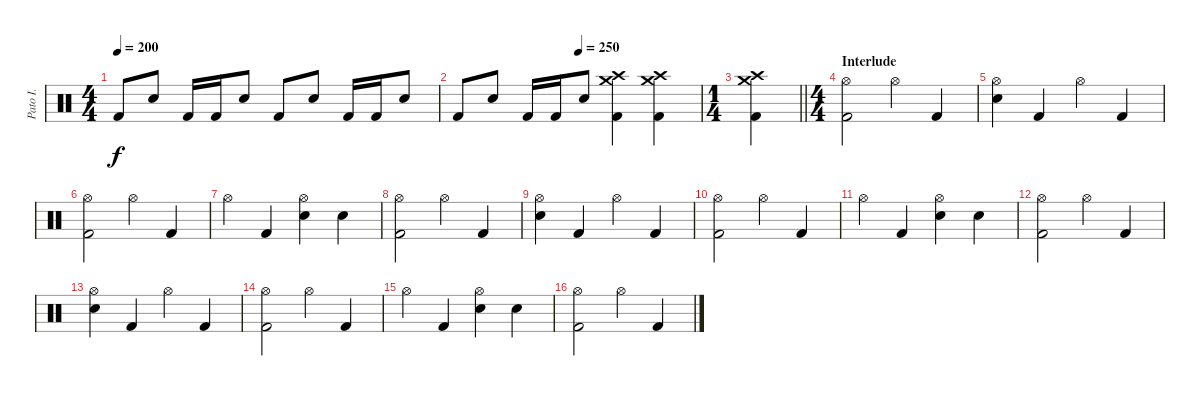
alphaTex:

\track ("Pato I." "Pato I.") {instrument percussion}
\staff {score}
\articulation defaults
\ts (4 4)
\tempo 200
\clef neutral
\ks c "Kick (hit) 2".8{dy f} "Snare (hit) 2".8 "Kick (hit) 2".16 "Kick (hit) 2".16 "Snare (hit) 2".8 "Kick (hit) 2".8 "Snare (hit) 2".8 "Kick (hit) 2".16 "Kick (hit) 2".16 "Snare (hit) 2".8
|
\tempo (250 0.5)
"Kick (hit) 2".8 "Snare (hit) 2".8 "Kick (hit) 2".16 "Kick (hit) 2".16 "Snare (hit) 2".8 ("Crash high (hit)" "Crash medium (hit)" "Kick (hit) 2").4 ("Crash high (hit)" "Crash medium (hit)" "Kick (hit) 2").4 |
\ts (1 4)
\barLineRight lightlight
("Crash high (hit)" "Crash medium (hit)" "Kick (hit) 2").4 |
\ts (4 4)
\section ("" "Interlude")
("Hi-Hat (open)" "Kick (hit) 2").2 "Hi-Hat (open)".4 "Kick (hit) 2".4 |
("Hi-Hat (open)" "Snare (hit) 2").4 "Kick (hit) 2".4 "Hi-Hat (open)".4 "Kick (hit) 2".4 |
("Hi-Hat (open)" "Kick (hit) 2").2 "Hi-Hat (open)".4 "Kick (hit) 2".4 |
"Hi-Hat (open)".4 "Kick (hit) 2".4 ("Hi-Hat (open)" "Snare (hit) 2").4 "Snare (hit) 2".4 |
("Hi-Hat (open)" "Kick (hit) 2").2 "Hi-Hat (open)".4 "Kick (hit) 2".4 |
("Hi-Hat (open)" "Snare (hit) 2").4 "Kick (hit) 2".4 "Hi-Hat (open)".4 "Kick (hit) 2".4 |
("Hi-Hat (open)" "Kick (hit) 2").2 "Hi-Hat (open)".4 "Kick (hit) 2".4 |
"Hi-Hat (open)".4 "Kick (hit) 2".4 ("Hi-Hat (open)" "Snare (hit) 2").4 "Snare (hit) 2".4 |
("Hi-Hat (open)" "Kick (hit) 2").2 "Hi-Hat (open)".4 "Kick (hit) 2".4 |
("Hi-Hat (open)" "Snare (hit) 2").4 "Kick (hit) 2".4 "Hi-Hat (open)".4 "Kick (hit) 2".4 |
("Hi-Hat (open)" "Kick (hit) 2").2 "Hi-Hat (open)".4 "Kick (hit) 2".4 |
"Hi-Hat (open)".4 "Kick (hit) 2".4 ("Hi-Hat (open)" "Snare (hit) 2").4 "Snare (hit) 2".4 |
("Hi-Hat (open)" "Kick (hit) 2").2 "Hi-Hat (open)".4 "Kick (hit) 2".4
